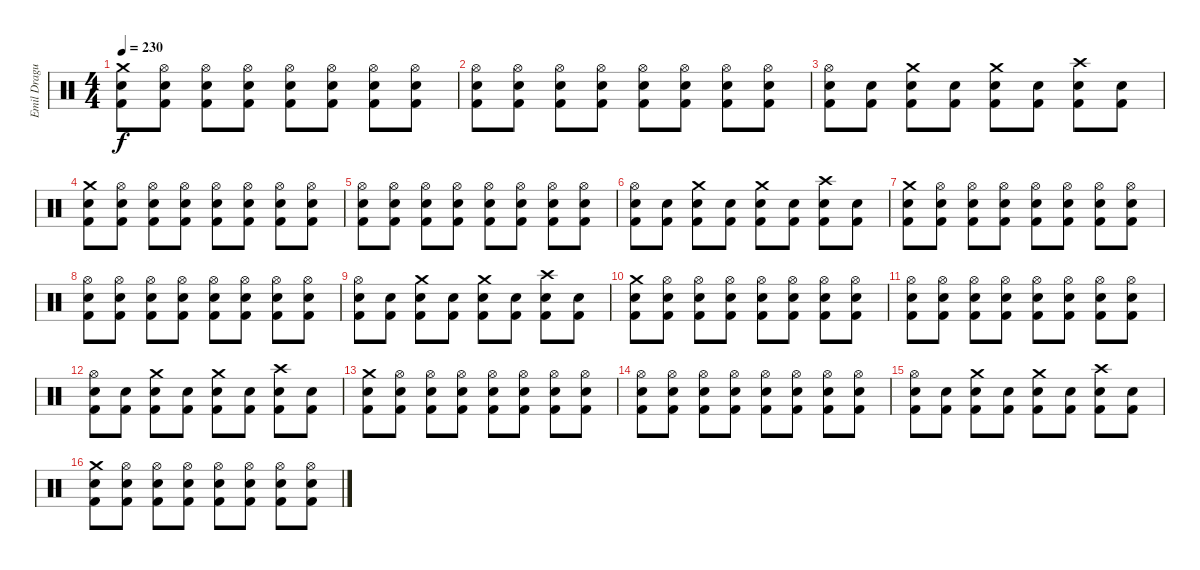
\track ("Emil Dragutinovic" "Emil Dragu") {instrument percussion}
\staff {score}
\articulation defaults
\ts (4 4)
\tempo 230
\clef neutral
\ks c
("Crash medium (hit)" "Electric Snare (hit)" "Kick (hit) 2").8{dy f} ("Hi-Hat (open)" "Electric Snare (hit)" "Kick (hit) 2").8 ("Hi-Hat (open)" "Electric Snare (hit)" "Kick (hit) 2").8 ("Hi-Hat (open)" "Electric Snare (hit)" "Kick (hit) 2").8 ("Hi-Hat (open)" "Electric Snare (hit)" "Kick (hit) 2").8 ("Hi-Hat (open)" "Electric Snare (hit)" "Kick (hit) 2").8 ("Hi-Hat (open)" "Electric Snare (hit)" "Kick (hit) 2").8 ("Hi-Hat (open)" "Electric Snare (hit)" "Kick (hit) 2").8 |
("Hi-Hat (open)" "Electric Snare (hit)" "Kick (hit) 2").8 ("Hi-Hat (open)" "Electric Snare (hit)" "Kick (hit) 2").8 ("Hi-Hat (open)" "Electric Snare (hit)" "Kick (hit) 2").8 ("Hi-Hat (open)" "Electric Snare (hit)" "Kick (hit) 2").8 ("Hi-Hat (open)" "Electric Snare (hit)" "Kick (hit) 2").8 ("Hi-Hat (open)" "Electric Snare (hit)" "Kick (hit) 2").8 ("Hi-Hat (open)" "Electric Snare (hit)" "Kick (hit) 2").8 ("Hi-Hat (open)" "Electric Snare (hit)" "Kick (hit) 2").8 |
("Hi-Hat (open)" "Electric Snare (hit)" "Kick (hit) 2").8 ("Electric Snare (hit)" "Kick (hit) 2").8 ("Crash medium (hit)" "Electric Snare (hit)" "Kick (hit) 2").8 ("Electric Snare (hit)" "Kick (hit) 2").8 ("Crash medium (hit)" "Electric Snare (hit)" "Kick (hit) 2").8 ("Electric Snare (hit)" "Kick (hit) 2").8 ("Crash high (hit)" "Electric Snare (hit)" "Kick (hit) 2").8 ("Electric Snare (hit)" "Kick (hit) 2").8 |
("Crash medium (hit)" "Electric Snare (hit)" "Kick (hit) 2").8 ("Hi-Hat (open)" "Electric Snare (hit)" "Kick (hit) 2").8 ("Hi-Hat (open)" "Electric Snare (hit)" "Kick (hit) 2").8 ("Hi-Hat (open)" "Electric Snare (hit)" "Kick (hit) 2").8 ("Hi-Hat (open)" "Electric Snare (hit)" "Kick (hit) 2").8 ("Hi-Hat (open)" "Electric Snare (hit)" "Kick (hit) 2").8 ("Hi-Hat (open)" "Electric Snare (hit)" "Kick (hit) 2").8 ("Hi-Hat (open)" "Electric Snare (hit)" "Kick (hit) 2").8 |
("Hi-Hat (open)" "Electric Snare (hit)" "Kick (hit) 2").8 ("Hi-Hat (open)" "Electric Snare (hit)" "Kick (hit) 2").8 ("Hi-Hat (open)" "Electric Snare (hit)" "Kick (hit) 2").8 ("Hi-Hat (open)" "Electric Snare (hit)" "Kick (hit) 2").8 ("Hi-Hat (open)" "Electric Snare (hit)" "Kick (hit) 2").8 ("Hi-Hat (open)" "Electric Snare (hit)" "Kick (hit) 2").8 ("Hi-Hat (open)" "Electric Snare (hit)" "Kick (hit) 2").8 ("Hi-Hat (open)" "Electric Snare (hit)" "Kick (hit) 2").8 |
("Hi-Hat (open)" "Electric Snare (hit)" "Kick (hit) 2").8 ("Electric Snare (hit)" "Kick (hit) 2").8 ("Crash medium (hit)" "Electric Snare (hit)" "Kick (hit) 2").8 ("Electric Snare (hit)" "Kick (hit) 2").8 ("Crash medium (hit)" "Electric Snare (hit)" "Kick (hit) 2").8 ("Electric Snare (hit)" "Kick (hit) 2").8 ("Crash high (hit)" "Electric Snare (hit)" "Kick (hit) 2").8 ("Electric Snare (hit)" "Kick (hit) 2").8 |
("Crash medium (hit)" "Electric Snare (hit)" "Kick (hit) 2").8 ("Hi-Hat (open)" "Electric Snare (hit)" "Kick (hit) 2").8 ("Hi-Hat (open)" "Electric Snare (hit)" "Kick (hit) 2").8 ("Hi-Hat (open)" "Electric Snare (hit)" "Kick (hit) 2").8 ("Hi-Hat (open)" "Electric Snare (hit)" "Kick (hit) 2").8 ("Hi-Hat (open)" "Electric Snare (hit)" "Kick (hit) 2").8 ("Hi-Hat (open)" "Electric Snare (hit)" "Kick (hit) 2").8 ("Hi-Hat (open)" "Electric Snare (hit)" "Kick (hit) 2").8 |
("Hi-Hat (open)" "Electric Snare (hit)" "Kick (hit) 2").8 ("Hi-Hat (open)" "Electric Snare (hit)" "Kick (hit) 2").8 ("Hi-Hat (open)" "Electric Snare (hit)" "Kick (hit) 2").8 ("Hi-Hat (open)" "Electric Snare (hit)" "Kick (hit) 2").8 ("Hi-Hat (open)" "Electric Snare (hit)" "Kick (hit) 2").8 ("Hi-Hat (open)" "Electric Snare (hit)" "Kick (hit) 2").8 ("Hi-Hat (open)" "Electric Snare (hit)" "Kick (hit) 2").8 ("Hi-Hat (open)" "Electric Snare (hit)" "Kick (hit) 2").8 |
("Hi-Hat (open)" "Electric Snare (hit)" "Kick (hit) 2").8 ("Electric Snare (hit)" "Kick (hit) 2").8 ("Crash medium (hit)" "Electric Snare (hit)" "Kick (hit) 2").8 ("Electric Snare (hit)" "Kick (hit) 2").8 ("Crash medium (hit)" "Electric Snare (hit)" "Kick (hit) 2").8 ("Electric Snare (hit)" "Kick (hit) 2").8 ("Crash high (hit)" "Electric Snare (hit)" "Kick (hit) 2").8 ("Electric Snare (hit)" "Kick (hit) 2").8 |
("Crash medium (hit)" "Electric Snare (hit)" "Kick (hit) 2").8 ("Hi-Hat (open)" "Electric Snare (hit)" "Kick (hit) 2").8 ("Hi-Hat (open)" "Electric Snare (hit)" "Kick (hit) 2").8 ("Hi-Hat (open)" "Electric Snare (hit)" "Kick (hit) 2").8 ("Hi-Hat (open)" "Electric Snare (hit)" "Kick (hit) 2").8 ("Hi-Hat (open)" "Electric Snare (hit)" "Kick (hit) 2").8 ("Hi-Hat (open)" "Electric Snare (hit)" "Kick (hit) 2").8 ("Hi-Hat (open)" "Electric Snare (hit)" "Kick (hit) 2").8 |
("Hi-Hat (open)" "Electric Snare (hit)" "Kick (hit) 2").8 ("Hi-Hat (open)" "Electric Snare (hit)" "Kick (hit) 2").8 ("Hi-Hat (open)" "Electric Snare (hit)" "Kick (hit) 2").8 ("Hi-Hat (open)" "Electric Snare (hit)" "Kick (hit) 2").8 ("Hi-Hat (open)" "Electric Snare (hit)" "Kick (hit) 2").8 ("Hi-Hat (open)" "Electric Snare (hit)" "Kick (hit) 2").8 ("Hi-Hat (open)" "Electric Snare (hit)" "Kick (hit) 2").8 ("Hi-Hat (open)" "Electric Snare (hit)" "Kick (hit) 2").8 |
("Hi-Hat (open)" "Electric Snare (hit)" "Kick (hit) 2").8 ("Electric Snare (hit)" "Kick (hit) 2").8 ("Crash medium (hit)" "Electric Snare (hit)" "Kick (hit) 2").8 ("Electric Snare (hit)" "Kick (hit) 2").8 ("Crash medium (hit)" "Electric Snare (hit)" "Kick (hit) 2").8 ("Electric Snare (hit)" "Kick (hit) 2").8 ("Crash high (hit)" "Electric Snare (hit)" "Kick (hit) 2").8 ("Electric Snare (hit)" "Kick (hit) 2").8 |
("Crash medium (hit)" "Electric Snare (hit)" "Kick (hit) 2").8 ("Hi-Hat (open)" "Electric Snare (hit)" "Kick (hit) 2").8 ("Hi-Hat (open)" "Electric Snare (hit)" "Kick (hit) 2").8 ("Hi-Hat (open)" "Electric Snare (hit)" "Kick (hit) 2").8 ("Hi-Hat (open)" "Electric Snare (hit)" "Kick (hit) 2").8 ("Hi-Hat (open)" "Electric Snare (hit)" "Kick (hit) 2").8 ("Hi-Hat (open)" "Electric Snare (hit)" "Kick (hit) 2").8 ("Hi-Hat (open)" "Electric Snare (hit)" "Kick (hit) 2").8 |
("Hi-Hat (open)" "Electric Snare (hit)" "Kick (hit) 2").8 ("Hi-Hat (open)" "Electric Snare (hit)" "Kick (hit) 2").8 ("Hi-Hat (open)" "Electric Snare (hit)" "Kick (hit) 2").8 ("Hi-Hat (open)" "Electric Snare (hit)" "Kick (hit) 2").8 ("Hi-Hat (open)" "Electric Snare (hit)" "Kick (hit) 2").8 ("Hi-Hat (open)" "Electric Snare (hit)" "Kick (hit) 2").8 ("Hi-Hat (open)" "Electric Snare (hit)" "Kick (hit) 2").8 ("Hi-Hat (open)" "Electric Snare (hit)" "Kick (hit) 2").8 |
("Hi-Hat (open)" "Electric Snare (hit)" "Kick (hit) 2").8 ("Electric Snare (hit)" "Kick (hit) 2").8 ("Crash medium (hit)" "Electric Snare (hit)" "Kick (hit) 2").8 ("Electric Snare (hit)" "Kick (hit) 2").8 ("Crash medium (hit)" "Electric Snare (hit)" "Kick (hit) 2").8 ("Electric Snare (hit)" "Kick (hit) 2").8 ("Crash high (hit)" "Electric Snare (hit)" "Kick (hit) 2").8 ("Electric Snare (hit)" "Kick (hit) 2").8 |
("Crash medium (hit)" "Electric Snare (hit)" "Kick (hit) 2").8 ("Hi-Hat (open)" "Electric Snare (hit)" "Kick (hit) 2").8 ("Hi-Hat (open)" "Electric Snare (hit)" "Kick (hit) 2").8 ("Hi-Hat (open)" "Electric Snare (hit)" "Kick (hit) 2").8 ("Hi-Hat (open)" "Electric Snare (hit)" "Kick (hit) 2").8 ("Hi-Hat (open)" "Electric Snare (hit)" "Kick (hit) 2").8 ("Hi-Hat (open)" "Electric Snare (hit)" "Kick (hit) 2").8 ("Hi-Hat (open)" "Electric Snare (hit)" "Kick (hit) 2").8
